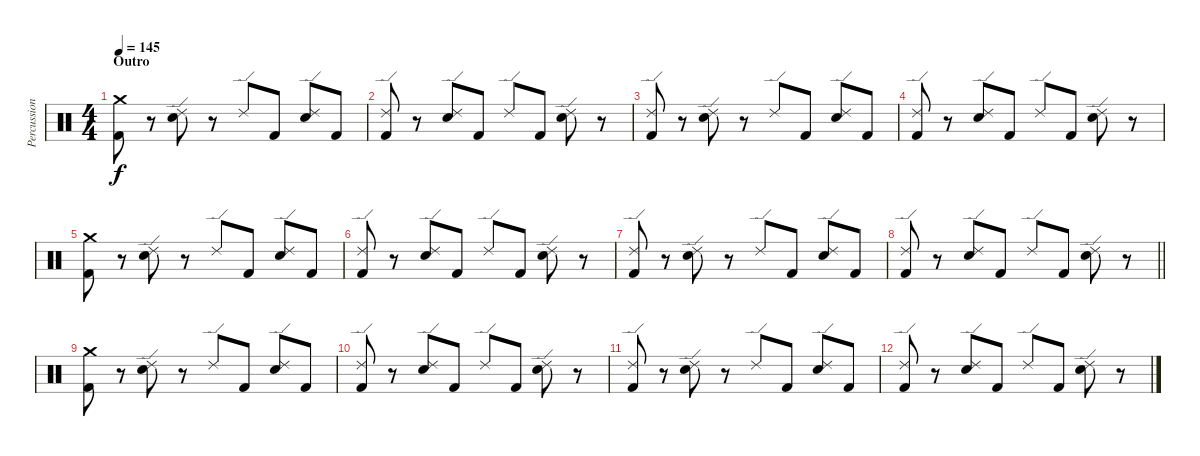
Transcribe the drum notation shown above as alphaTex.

\track ("Percussion" "Percussion") {instrument percussion}
\staff {score}
\articulation defaults
\ts (4 4)
\section ("" "Outro")
\tempo 145
\clef neutral
\ks c
("Crash medium (hit)" "Kick (hit) 2").8{dy f} r.8 ("Ride (edge) 2" "Electric Snare (hit)").8 r.8 "Ride (edge) 2".8 "Kick (hit) 2".8 ("Ride (edge) 2" "Electric Snare (hit)").8 "Kick (hit) 2".8 |
("Ride (edge) 2" "Kick (hit) 2").8 r.8 ("Ride (edge) 2" "Electric Snare (hit)").8 "Kick (hit) 2".8 "Ride (edge) 2".8 "Kick (hit) 2".8 ("Ride (edge) 2" "Electric Snare (hit)").8 r.8 |
("Ride (edge) 2" "Kick (hit) 2").8 r.8 ("Ride (edge) 2" "Electric Snare (hit)").8 r.8 "Ride (edge) 2".8 "Kick (hit) 2".8 ("Ride (edge) 2" "Electric Snare (hit)").8 "Kick (hit) 2".8 |
("Ride (edge) 2" "Kick (hit) 2").8 r.8 ("Ride (edge) 2" "Electric Snare (hit)").8 "Kick (hit) 2".8 "Ride (edge) 2".8 "Kick (hit) 2".8 ("Ride (edge) 2" "Electric Snare (hit)").8 r.8 |
("Crash medium (hit)" "Kick (hit) 2").8 r.8 ("Ride (edge) 2" "Electric Snare (hit)").8 r.8 "Ride (edge) 2".8 "Kick (hit) 2".8 ("Ride (edge) 2" "Electric Snare (hit)").8 "Kick (hit) 2".8 |
("Ride (edge) 2" "Kick (hit) 2").8 r.8 ("Ride (edge) 2" "Electric Snare (hit)").8 "Kick (hit) 2".8 "Ride (edge) 2".8 "Kick (hit) 2".8 ("Ride (edge) 2" "Electric Snare (hit)").8 r.8 |
("Ride (edge) 2" "Kick (hit) 2").8 r.8 ("Ride (edge) 2" "Electric Snare (hit)").8 r.8 "Ride (edge) 2".8 "Kick (hit) 2".8 ("Ride (edge) 2" "Electric Snare (hit)").8 "Kick (hit) 2".8 |
\barLineRight lightlight
("Ride (edge) 2" "Kick (hit) 2").8 r.8 ("Ride (edge) 2" "Electric Snare (hit)").8 "Kick (hit) 2".8 "Ride (edge) 2".8 "Kick (hit) 2".8 ("Ride (edge) 2" "Electric Snare (hit)").8 r.8 |
("Crash medium (hit)" "Kick (hit) 2").8 r.8 ("Ride (edge) 2" "Electric Snare (hit)").8 r.8 "Ride (edge) 2".8 "Kick (hit) 2".8 ("Ride (edge) 2" "Electric Snare (hit)").8 "Kick (hit) 2".8 |
("Ride (edge) 2" "Kick (hit) 2").8 r.8 ("Ride (edge) 2" "Electric Snare (hit)").8 "Kick (hit) 2".8 "Ride (edge) 2".8 "Kick (hit) 2".8 ("Ride (edge) 2" "Electric Snare (hit)").8 r.8 |
("Ride (edge) 2" "Kick (hit) 2").8 r.8 ("Ride (edge) 2" "Electric Snare (hit)").8 r.8 "Ride (edge) 2".8 "Kick (hit) 2".8 ("Ride (edge) 2" "Electric Snare (hit)").8 "Kick (hit) 2".8 |
("Ride (edge) 2" "Kick (hit) 2").8 r.8 ("Ride (edge) 2" "Electric Snare (hit)").8 "Kick (hit) 2".8 "Ride (edge) 2".8 "Kick (hit) 2".8 ("Ride (edge) 2" "Electric Snare (hit)").8 r.8
